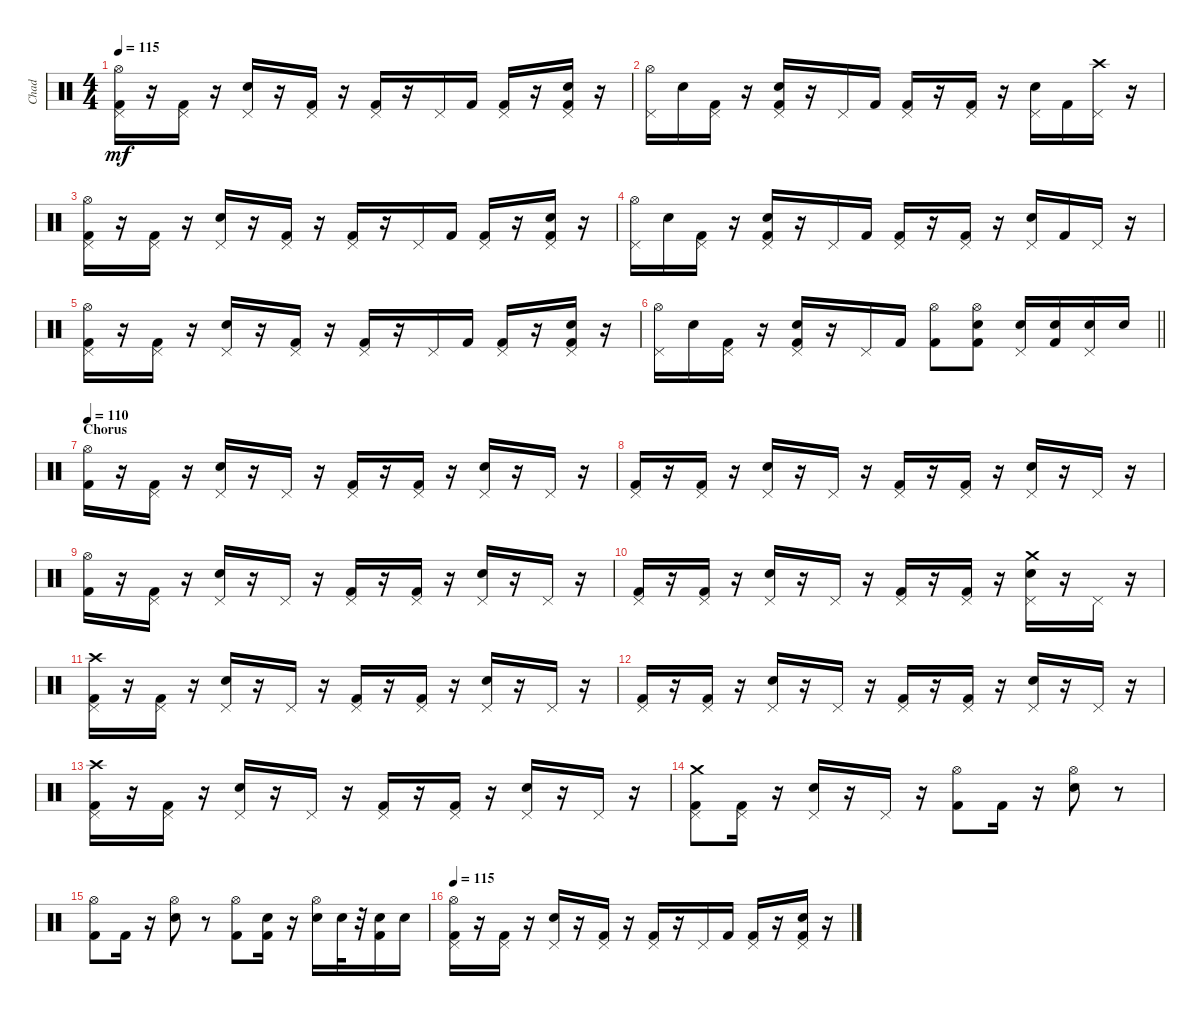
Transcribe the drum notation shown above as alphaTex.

\track ("Chad" "Chad") {instrument percussion}
\staff {score}
\articulation defaults
\ts (4 4)
\tempo 115
\clef neutral
\ks c
("Kick (hit) 2" "Pedal Hi-Hat (hit)" "Hi-Hat (open)").16{dy mf} r.16 ("Kick (hit) 2" "Pedal Hi-Hat (hit)").16 r.16 ("Snare (hit) 2" "Pedal Hi-Hat (hit)").16 r.16 ("Kick (hit) 2" "Pedal Hi-Hat (hit)").16 r.16 ("Kick (hit) 2" "Pedal Hi-Hat (hit)").16 r.16 "Pedal Hi-Hat (hit)".16 "Kick (hit) 2".16 ("Kick (hit) 2" "Pedal Hi-Hat (hit)").16 r.16 ("Kick (hit) 2" "Snare (hit) 2" "Pedal Hi-Hat (hit)").16 r.16 |
("Pedal Hi-Hat (hit)" "Hi-Hat (open)").16 "Snare (hit) 2".16 ("Kick (hit) 2" "Pedal Hi-Hat (hit)").16 r.16 ("Kick (hit) 2" "Snare (hit) 2" "Pedal Hi-Hat (hit)").16 r.16 "Pedal Hi-Hat (hit)".16 "Kick (hit) 2".16 ("Kick (hit) 2" "Pedal Hi-Hat (hit)").16 r.16 ("Kick (hit) 2" "Pedal Hi-Hat (hit)").16 r.16 ("Snare (hit) 2" "Pedal Hi-Hat (hit)").16 "Kick (hit) 2".16 ("Pedal Hi-Hat (hit)" "Crash high (hit)").16 r.16 |
("Kick (hit) 2" "Pedal Hi-Hat (hit)" "Hi-Hat (open)").16 r.16 ("Kick (hit) 2" "Pedal Hi-Hat (hit)").16 r.16 ("Snare (hit) 2" "Pedal Hi-Hat (hit)").16 r.16 ("Kick (hit) 2" "Pedal Hi-Hat (hit)").16 r.16 ("Kick (hit) 2" "Pedal Hi-Hat (hit)").16 r.16 "Pedal Hi-Hat (hit)".16 "Kick (hit) 2".16 ("Kick (hit) 2" "Pedal Hi-Hat (hit)").16 r.16 ("Kick (hit) 2" "Snare (hit) 2" "Pedal Hi-Hat (hit)").16 r.16 |
("Pedal Hi-Hat (hit)" "Hi-Hat (open)").16 "Snare (hit) 2".16 ("Kick (hit) 2" "Pedal Hi-Hat (hit)").16 r.16 ("Kick (hit) 2" "Snare (hit) 2" "Pedal Hi-Hat (hit)").16 r.16 "Pedal Hi-Hat (hit)".16 "Kick (hit) 2".16 ("Kick (hit) 2" "Pedal Hi-Hat (hit)").16 r.16 ("Kick (hit) 2" "Pedal Hi-Hat (hit)").16 r.16 ("Snare (hit) 2" "Pedal Hi-Hat (hit)").16 "Kick (hit) 2".16 "Pedal Hi-Hat (hit)".16 r.16 |
("Kick (hit) 2" "Pedal Hi-Hat (hit)" "Hi-Hat (open)").16 r.16 ("Kick (hit) 2" "Pedal Hi-Hat (hit)").16 r.16 ("Snare (hit) 2" "Pedal Hi-Hat (hit)").16 r.16 ("Kick (hit) 2" "Pedal Hi-Hat (hit)").16 r.16 ("Kick (hit) 2" "Pedal Hi-Hat (hit)").16 r.16 "Pedal Hi-Hat (hit)".16 "Kick (hit) 2".16 ("Kick (hit) 2" "Pedal Hi-Hat (hit)").16 r.16 ("Kick (hit) 2" "Snare (hit) 2" "Pedal Hi-Hat (hit)").16 r.16 |
\barLineRight lightlight
("Pedal Hi-Hat (hit)" "Hi-Hat (open)").16 "Snare (hit) 2".16 ("Kick (hit) 2" "Pedal Hi-Hat (hit)").16 r.16 ("Kick (hit) 2" "Snare (hit) 2" "Pedal Hi-Hat (hit)").16 r.16 "Pedal Hi-Hat (hit)".16 "Kick (hit) 2".16 ("Kick (hit) 2" "Hi-Hat (open)").8 ("Kick (hit) 2" "Snare (hit) 2" "Hi-Hat (open)").8 ("Snare (hit) 2" "Pedal Hi-Hat (hit)").16 ("Kick (hit) 2" "Snare (hit) 2").16 ("Snare (hit) 2" "Pedal Hi-Hat (hit)").16 "Snare (hit) 2".16 |
\section ("" "Chorus")
\tempo 110
("Kick (hit) 2" "Hi-Hat (open)").16 r.16 ("Kick (hit) 2" "Pedal Hi-Hat (hit)").16 r.16 ("Snare (hit) 2" "Pedal Hi-Hat (hit)").16 r.16 "Pedal Hi-Hat (hit)".16 r.16 ("Kick (hit) 2" "Pedal Hi-Hat (hit)").16 r.16 ("Kick (hit) 2" "Pedal Hi-Hat (hit)").16 r.16 ("Snare (hit) 2" "Pedal Hi-Hat (hit)").16 r.16 "Pedal Hi-Hat (hit)".16 r.16 |
("Kick (hit) 2" "Pedal Hi-Hat (hit)").16 r.16 ("Kick (hit) 2" "Pedal Hi-Hat (hit)").16 r.16 ("Snare (hit) 2" "Pedal Hi-Hat (hit)").16 r.16 "Pedal Hi-Hat (hit)".16 r.16 ("Kick (hit) 2" "Pedal Hi-Hat (hit)").16 r.16 ("Kick (hit) 2" "Pedal Hi-Hat (hit)").16 r.16 ("Snare (hit) 2" "Pedal Hi-Hat (hit)").16 r.16 "Pedal Hi-Hat (hit)".16 r.16 |
("Kick (hit) 2" "Hi-Hat (open)").16 r.16 ("Kick (hit) 2" "Pedal Hi-Hat (hit)").16 r.16 ("Snare (hit) 2" "Pedal Hi-Hat (hit)").16 r.16 "Pedal Hi-Hat (hit)".16 r.16 ("Kick (hit) 2" "Pedal Hi-Hat (hit)").16 r.16 ("Kick (hit) 2" "Pedal Hi-Hat (hit)").16 r.16 ("Snare (hit) 2" "Pedal Hi-Hat (hit)").16 r.16 "Pedal Hi-Hat (hit)".16 r.16 |
("Kick (hit) 2" "Pedal Hi-Hat (hit)").16 r.16 ("Kick (hit) 2" "Pedal Hi-Hat (hit)").16 r.16 ("Snare (hit) 2" "Pedal Hi-Hat (hit)").16 r.16 "Pedal Hi-Hat (hit)".16 r.16 ("Kick (hit) 2" "Pedal Hi-Hat (hit)").16 r.16 ("Kick (hit) 2" "Pedal Hi-Hat (hit)").16 r.16 ("Snare (hit) 2" "Pedal Hi-Hat (hit)" "Crash medium (hit)").16 r.16 "Pedal Hi-Hat (hit)".16 r.16 |
("Kick (hit) 2" "Pedal Hi-Hat (hit)" "Crash high (hit)").16 r.16 ("Kick (hit) 2" "Pedal Hi-Hat (hit)").16 r.16 ("Snare (hit) 2" "Pedal Hi-Hat (hit)").16 r.16 "Pedal Hi-Hat (hit)".16 r.16 ("Kick (hit) 2" "Pedal Hi-Hat (hit)").16 r.16 ("Kick (hit) 2" "Pedal Hi-Hat (hit)").16 r.16 ("Snare (hit) 2" "Pedal Hi-Hat (hit)").16 r.16 "Pedal Hi-Hat (hit)".16 r.16 |
("Kick (hit) 2" "Pedal Hi-Hat (hit)").16 r.16 ("Kick (hit) 2" "Pedal Hi-Hat (hit)").16 r.16 ("Snare (hit) 2" "Pedal Hi-Hat (hit)").16 r.16 "Pedal Hi-Hat (hit)".16 r.16 ("Kick (hit) 2" "Pedal Hi-Hat (hit)").16 r.16 ("Kick (hit) 2" "Pedal Hi-Hat (hit)").16 r.16 ("Snare (hit) 2" "Pedal Hi-Hat (hit)").16 r.16 "Pedal Hi-Hat (hit)".16 r.16 |
("Kick (hit) 2" "Pedal Hi-Hat (hit)" "Crash high (hit)").16 r.16 ("Kick (hit) 2" "Pedal Hi-Hat (hit)").16 r.16 ("Snare (hit) 2" "Pedal Hi-Hat (hit)").16 r.16 "Pedal Hi-Hat (hit)".16 r.16 ("Kick (hit) 2" "Pedal Hi-Hat (hit)").16 r.16 ("Kick (hit) 2" "Pedal Hi-Hat (hit)").16 r.16 ("Snare (hit) 2" "Pedal Hi-Hat (hit)").16 r.16 "Pedal Hi-Hat (hit)".16 r.16 |
("Kick (hit) 2" "Pedal Hi-Hat (hit)" "Crash medium (hit)").8 ("Kick (hit) 2" "Pedal Hi-Hat (hit)").16 r.16 ("Snare (hit) 2" "Pedal Hi-Hat (hit)").16 r.16 "Pedal Hi-Hat (hit)".16 r.16 ("Kick (hit) 2" "Hi-Hat (open)").8 "Kick (hit) 2".16 r.16 ("Snare (hit) 2" "Hi-Hat (open)").8 r.8 |
("Hi-Hat (open)" "Kick (hit) 2").8 "Kick (hit) 2".16 r.16 ("Snare (hit) 2" "Hi-Hat (open)").8 r.8 ("Kick (hit) 2" "Hi-Hat (open)").8 ("Kick (hit) 2" "Snare (hit) 2").16 r.16 ("Snare (hit) 2" "Hi-Hat (open)").16 "Snare (hit) 2".32 r.32 ("Kick (hit) 2" "Snare (hit) 2").16 "Snare (hit) 2".16 |
\tempo 115
("Kick (hit) 2" "Pedal Hi-Hat (hit)" "Hi-Hat (open)").16 r.16 ("Kick (hit) 2" "Pedal Hi-Hat (hit)").16 r.16 ("Snare (hit) 2" "Pedal Hi-Hat (hit)").16 r.16 ("Kick (hit) 2" "Pedal Hi-Hat (hit)").16 r.16 ("Kick (hit) 2" "Pedal Hi-Hat (hit)").16 r.16 "Pedal Hi-Hat (hit)".16 "Kick (hit) 2".16 ("Kick (hit) 2" "Pedal Hi-Hat (hit)").16 r.16 ("Kick (hit) 2" "Snare (hit) 2" "Pedal Hi-Hat (hit)").16 r.16
